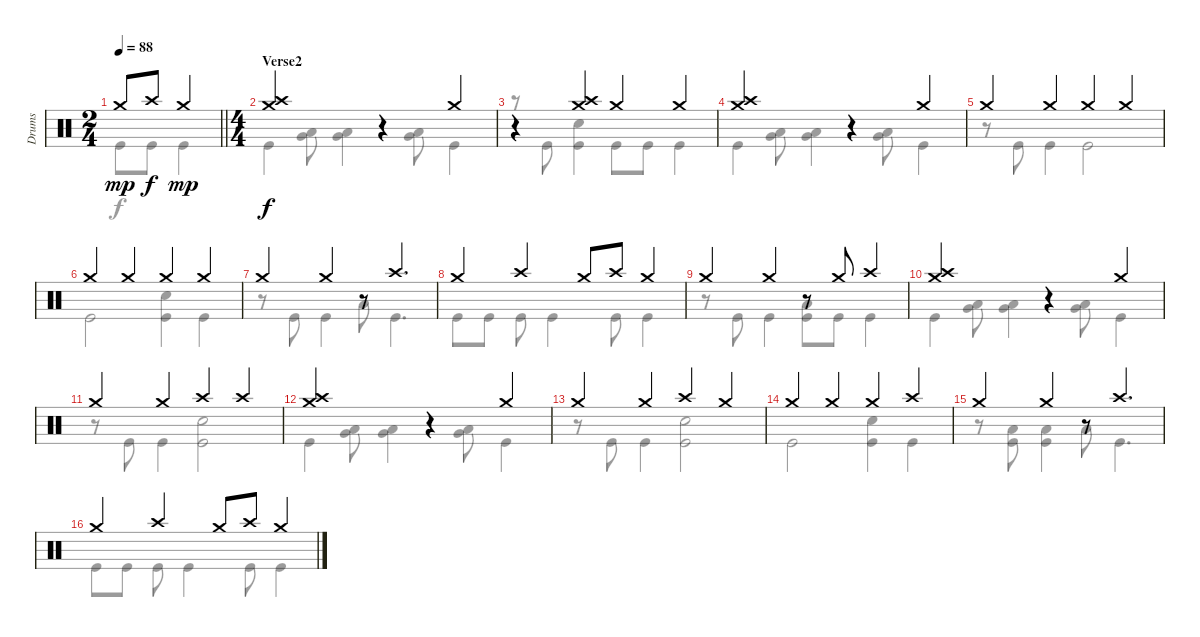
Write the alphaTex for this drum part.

\track ("Drums" "Drums") {instrument percussion}
\staff {score}
\articulation defaults
\voice
\ts (2 4)
\tempo 88
\clef neutral
\barLineRight lightlight
\ks c "Crash medium (hit)".8{dy mp} "Crash high (hit)".8{dy f} "Crash medium (hit)".4{dy mp}
|
\ts (4 4)
\section ("" "Verse2")
("Crash medium (hit)" "Crash high (hit)").2{dy f} r.4 "Crash medium (hit)".4 |
r.4 ("Crash medium (hit)" "Crash high (hit)").4 "Crash medium (hit)".4 "Crash medium (hit)".4 |
("Crash medium (hit)" "Crash high (hit)").2 r.4 "Crash medium (hit)".4 |
"Crash medium (hit)".4 "Crash medium (hit)".4 "Crash medium (hit)".4 "Crash medium (hit)".4 |
"Crash medium (hit)".4 "Crash medium (hit)".4 "Crash medium (hit)".4 "Crash medium (hit)".4 |
"Crash medium (hit)".4 "Crash medium (hit)".4 r.8 "Crash high (hit)".4{d} |
"Crash medium (hit)".4 "Crash high (hit)".4 "Crash medium (hit)".8 "Crash high (hit)".8 "Crash medium (hit)".4 |
"Crash medium (hit)".4 "Crash medium (hit)".4 r.8 "Crash medium (hit)".8 "Crash high (hit)".4 |
("Crash medium (hit)" "Crash high (hit)").2 r.4 "Crash medium (hit)".4 |
"Crash medium (hit)".4 "Crash medium (hit)".4 "Crash high (hit)".4 "Crash high (hit)".4 |
("Crash medium (hit)" "Crash high (hit)").2 r.4 "Crash medium (hit)".4 |
"Crash medium (hit)".4 "Crash medium (hit)".4 "Crash high (hit)".4 "Crash medium (hit)".4 |
"Crash medium (hit)".4 "Crash medium (hit)".4 "Crash medium (hit)".4 "Crash high (hit)".4 |
"Crash medium (hit)".4 "Crash medium (hit)".4 r.8 "Crash high (hit)".4{d} |
"Crash medium (hit)".4 "Crash high (hit)".4 "Crash medium (hit)".8 "Crash high (hit)".8 "Crash medium (hit)".4
\voice
\clef neutral
\ottava regular
\simile none
\barLineRight lightlight
\ks c "Kick (hit)".8{dy f} "Kick (hit)".8 "Kick (hit)".4
|
"Kick (hit)".4 ("Very Low Tom (hit)" "Low Floor Tom (hit)").8 ("Very Low Tom (hit)" "Low Floor Tom (hit)").4 ("Very Low Tom (hit)" "Low Floor Tom (hit)").8 "Kick (hit)".4 |
r.8 "Kick (hit)".8 ("Snare (hit) 2" "Kick (hit)").4 "Kick (hit)".8 "Kick (hit)".8 "Kick (hit)".4 |
"Kick (hit)".4 ("Very Low Tom (hit)" "Low Floor Tom (hit)").8 ("Very Low Tom (hit)" "Low Floor Tom (hit)").4 ("Very Low Tom (hit)" "Low Floor Tom (hit)").8 "Kick (hit)".4 |
r.8 "Kick (hit)".8 "Kick (hit)".4 "Kick (hit)".2 |
"Kick (hit)".2 ("Snare (hit) 2" "Kick (hit)").4 "Kick (hit)".4 |
r.8 "Kick (hit)".8 "Kick (hit)".4 "Low Floor Tom (hit)".8 "Kick (hit)".4{d} |
"Kick (hit)".8 "Kick (hit)".8 "Kick (hit)".8 "Kick (hit)".4 "Kick (hit)".8 "Kick (hit)".4 |
r.8 "Kick (hit)".8 "Kick (hit)".4 ("Low Floor Tom (hit)" "Kick (hit)").8 "Kick (hit)".8 "Kick (hit)".4 |
"Kick (hit)".4 ("Very Low Tom (hit)" "Low Floor Tom (hit)").8 ("Very Low Tom (hit)" "Low Floor Tom (hit)").4 ("Very Low Tom (hit)" "Low Floor Tom (hit)").8 "Kick (hit)".4 |
r.8 "Kick (hit)".8 "Kick (hit)".4 ("Snare (hit) 2" "Kick (hit)").2 |
"Kick (hit)".4 ("Very Low Tom (hit)" "Low Floor Tom (hit)").8 ("Very Low Tom (hit)" "Low Floor Tom (hit)").4 ("Very Low Tom (hit)" "Low Floor Tom (hit)").8 "Kick (hit)".4 |
r.8 "Kick (hit)".8 "Kick (hit)".4 ("Snare (hit) 2" "Kick (hit)").2 |
"Kick (hit)".2 ("Snare (hit) 2" "Kick (hit)").4 "Kick (hit)".4 |
r.8 ("Low Floor Tom (hit)" "Kick (hit)").8 ("Low Floor Tom (hit)" "Kick (hit)").4 "Low Floor Tom (hit)".8 "Kick (hit)".4{d} |
"Kick (hit)".8 "Kick (hit)".8 "Kick (hit)".8 "Kick (hit)".4 "Kick (hit)".8 "Kick (hit)".4
